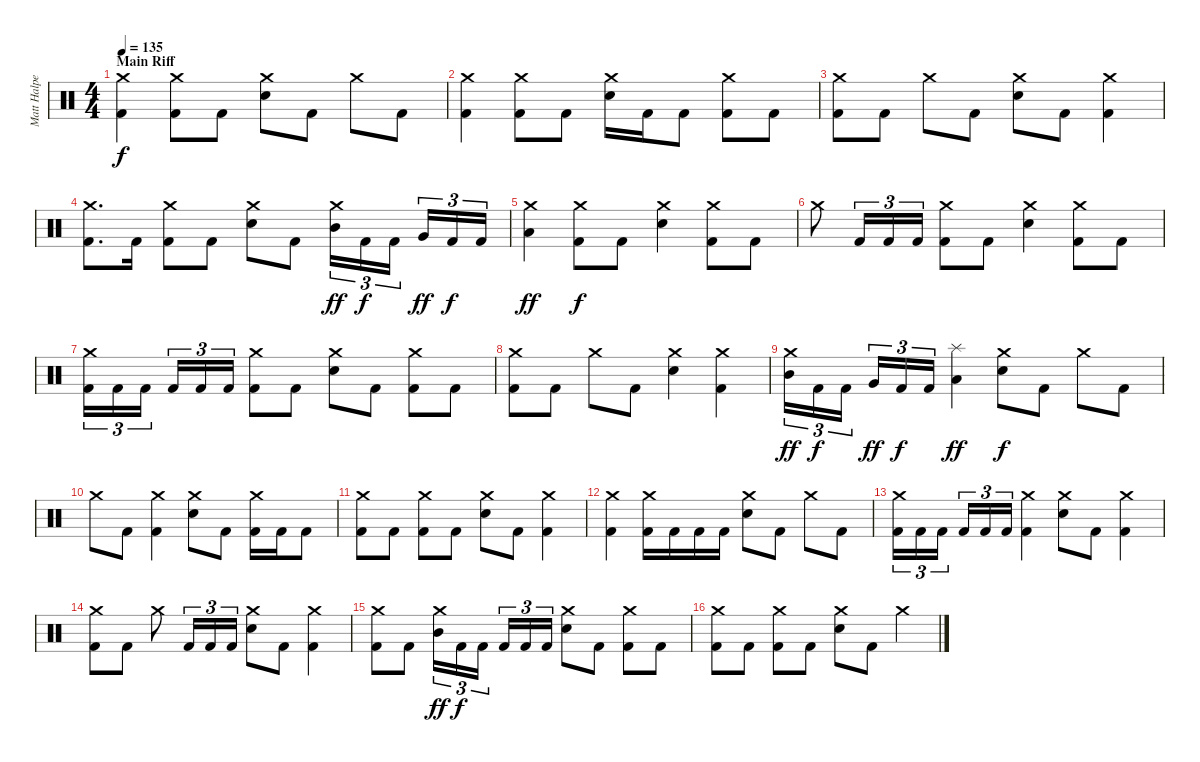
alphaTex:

\track ("Matt Halpern - Drums" "Matt Halpe") {instrument percussion}
\staff {score}
\articulation defaults
\ts (4 4)
\section ("" "Main Riff")
\tempo 135
\clef neutral
\ks c
("Crash medium (hit)" "Kick (hit) 2").4{dy f} ("Crash medium (hit)" "Kick (hit) 2").8 "Kick (hit) 2".8 ("Crash medium (hit)" "Electric Snare (hit)").8 "Kick (hit) 2".8 "Crash medium (hit)".8 "Kick (hit) 2".8 |
("Crash medium (hit)" "Kick (hit) 2").4 ("Crash medium (hit)" "Kick (hit) 2").8 "Kick (hit) 2".8 ("Crash medium (hit)" "Electric Snare (hit)").16 "Kick (hit) 2".16 "Kick (hit) 2".8 ("Crash medium (hit)" "Kick (hit) 2").8 "Kick (hit) 2".8 |
("Crash medium (hit)" "Kick (hit) 2").8 "Kick (hit) 2".8 "Crash medium (hit)".8 "Kick (hit) 2".8 ("Crash medium (hit)" "Electric Snare (hit)").8 "Kick (hit) 2".8 ("Crash medium (hit)" "Kick (hit) 2").4 |
("Crash medium (hit)" "Kick (hit) 2").8{d} "Kick (hit) 2".16 ("Crash medium (hit)" "Kick (hit) 2").8 "Kick (hit) 2".8 ("Crash medium (hit)" "Electric Snare (hit)").8 "Kick (hit) 2".8 ("Crash medium (hit)" "Mid Tom (hit)").16{tu (3 2) dy ff} "Kick (hit) 2".16{tu (3 2) dy f} "Kick (hit) 2".16{tu (3 2) beam splitsecondary} "Very Low Tom (hit)".16{tu (3 2) dy ff} "Kick (hit) 2".16{tu (3 2) dy f} "Kick (hit) 2".16{tu (3 2)} |
("Crash medium (hit)" "Low Floor Tom (hit)").4{dy ff} ("Crash medium (hit)" "Kick (hit) 2").8{dy f} "Kick (hit) 2".8 ("Crash medium (hit)" "Electric Snare (hit)").4 ("Crash medium (hit)" "Kick (hit) 2").8 "Kick (hit) 2".8 |
"Crash medium (hit)".8 "Kick (hit) 2".16{tu (3 2)} "Kick (hit) 2".16{tu (3 2)} "Kick (hit) 2".16{tu (3 2)} ("Crash medium (hit)" "Kick (hit) 2").8 "Kick (hit) 2".8 ("Crash medium (hit)" "Electric Snare (hit)").4 ("Crash medium (hit)" "Kick (hit) 2").8 "Kick (hit) 2".8 |
("Crash medium (hit)" "Kick (hit) 2").16{tu (3 2)} "Kick (hit) 2".16{tu (3 2)} "Kick (hit) 2".16{tu (3 2) beam splitsecondary} "Kick (hit) 2".16{tu (3 2)} "Kick (hit) 2".16{tu (3 2)} "Kick (hit) 2".16{tu (3 2)} ("Crash medium (hit)" "Kick (hit) 2").8 "Kick (hit) 2".8 ("Crash medium (hit)" "Electric Snare (hit)").8 "Kick (hit) 2".8 ("Crash medium (hit)" "Kick (hit) 2").8 "Kick (hit) 2".8 |
("Crash medium (hit)" "Kick (hit) 2").8 "Kick (hit) 2".8 "Crash medium (hit)".8 "Kick (hit) 2".8 ("Crash medium (hit)" "Electric Snare (hit)").4 ("Crash medium (hit)" "Kick (hit) 2").4 |
("Crash medium (hit)" "Mid Tom (hit)").16{tu (3 2) dy ff} "Kick (hit) 2".16{tu (3 2) dy f} "Kick (hit) 2".16{tu (3 2) beam splitsecondary} "Very Low Tom (hit)".16{tu (3 2) dy ff} "Kick (hit) 2".16{tu (3 2) dy f} "Kick (hit) 2".16{tu (3 2)} ("Splash (hit)" "Low Floor Tom (hit)").4{dy ff} ("Crash medium (hit)" "Electric Snare (hit)").8{dy f} "Kick (hit) 2".8 "Crash medium (hit)".8 "Kick (hit) 2".8 |
"Crash medium (hit)".8 "Kick (hit) 2".8 ("Crash medium (hit)" "Kick (hit) 2").4 ("Crash medium (hit)" "Electric Snare (hit)").8 "Kick (hit) 2".8 ("Crash medium (hit)" "Kick (hit) 2").16 "Kick (hit) 2".16 "Kick (hit) 2".8 |
("Crash medium (hit)" "Kick (hit) 2").8 "Kick (hit) 2".8 ("Crash medium (hit)" "Kick (hit) 2").8 "Kick (hit) 2".8 ("Crash medium (hit)" "Electric Snare (hit)").8 "Kick (hit) 2".8 ("Crash medium (hit)" "Kick (hit) 2").4 |
("Crash medium (hit)" "Kick (hit) 2").4 ("Crash medium (hit)" "Kick (hit) 2").16 "Kick (hit) 2".16 "Kick (hit) 2".16 "Kick (hit) 2".16 ("Crash medium (hit)" "Electric Snare (hit)").8 "Kick (hit) 2".8 "Crash medium (hit)".8 "Kick (hit) 2".8 |
("Crash medium (hit)" "Kick (hit) 2").16{tu (3 2)} "Kick (hit) 2".16{tu (3 2)} "Kick (hit) 2".16{tu (3 2) beam splitsecondary} "Kick (hit) 2".16{tu (3 2)} "Kick (hit) 2".16{tu (3 2)} "Kick (hit) 2".16{tu (3 2)} ("Crash medium (hit)" "Kick (hit) 2").4 ("Crash medium (hit)" "Electric Snare (hit)").8 "Kick (hit) 2".8 ("Crash medium (hit)" "Kick (hit) 2").4 |
("Crash medium (hit)" "Kick (hit) 2").8 "Kick (hit) 2".8 "Crash medium (hit)".8 "Kick (hit) 2".16{tu (3 2)} "Kick (hit) 2".16{tu (3 2)} "Kick (hit) 2".16{tu (3 2)} ("Crash medium (hit)" "Electric Snare (hit)").8 "Kick (hit) 2".8 ("Crash medium (hit)" "Kick (hit) 2").4 |
("Crash medium (hit)" "Kick (hit) 2").8 "Kick (hit) 2".8 ("Crash medium (hit)" "Mid Tom (hit)").16{tu (3 2) dy ff} "Kick (hit) 2".16{tu (3 2) dy f} "Kick (hit) 2".16{tu (3 2) beam splitsecondary} "Kick (hit) 2".16{tu (3 2)} "Kick (hit) 2".16{tu (3 2)} "Kick (hit) 2".16{tu (3 2)} ("Crash medium (hit)" "Electric Snare (hit)").8 "Kick (hit) 2".8 ("Crash medium (hit)" "Kick (hit) 2").8 "Kick (hit) 2".8 |
("Crash medium (hit)" "Kick (hit) 2").8 "Kick (hit) 2".8 ("Crash medium (hit)" "Kick (hit) 2").8 "Kick (hit) 2".8 ("Crash medium (hit)" "Electric Snare (hit)").8 "Kick (hit) 2".8 "Crash medium (hit)".4
